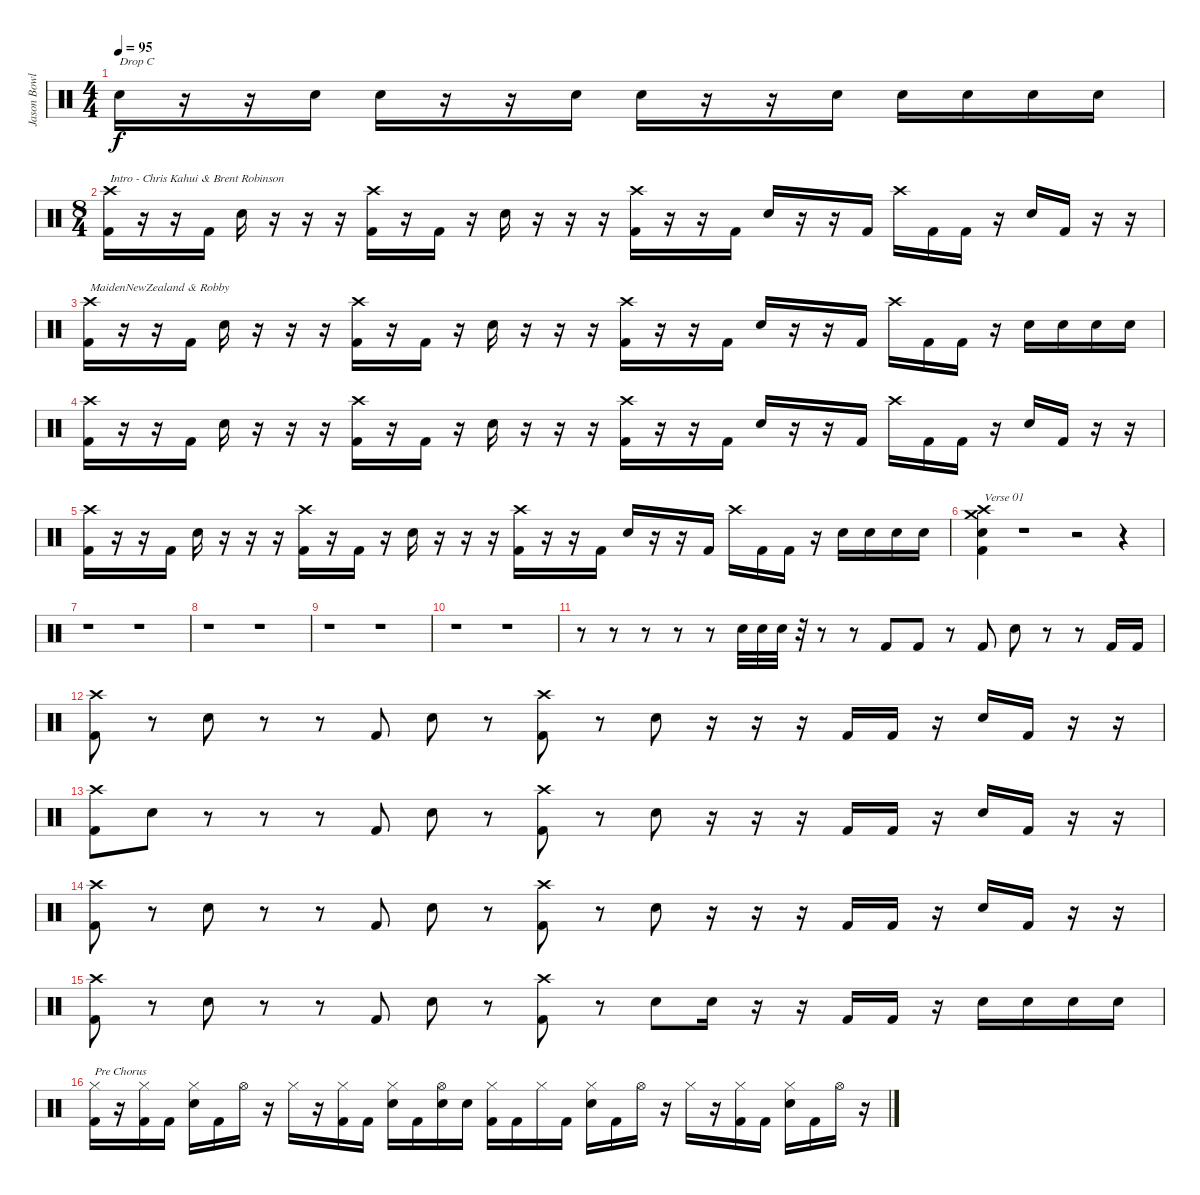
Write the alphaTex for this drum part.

\track ("Jason Bowld" "Jason Bowl") {instrument percussion}
\staff {score}
\articulation defaults
\ts (4 4)
\tempo 95
\clef neutral
\ks c "Snare (hit) 2".16{txt "Drop C" dy f}
r.16 r.16 "Snare (hit) 2".16 "Snare (hit) 2".16 r.16 r.16 "Snare (hit) 2".16 "Snare (hit) 2".16 r.16 r.16 "Snare (hit) 2".16 "Snare (hit) 2".16 "Snare (hit) 2".16 "Snare (hit) 2".16 "Snare (hit) 2".16 |
\ts (8 4)
("Kick (hit) 2" "Crash high (hit)").16{txt "Intro - Chris Kahui & Brent Robinson"} r.16 r.16 "Kick (hit) 2".16 "Snare (hit) 2".16 r.16 r.16 r.16 ("Kick (hit) 2" "Crash high (hit)").16 r.16 "Kick (hit) 2".16 r.16 "Snare (hit) 2".16 r.16 r.16 r.16 ("Kick (hit) 2" "Crash high (hit)").16 r.16 r.16 "Kick (hit) 2".16 "Snare (hit) 2".16 r.16 r.16 "Kick (hit) 2".16 "Crash high (hit)".16 "Kick (hit) 2".16 "Kick (hit) 2".16 r.16 "Snare (hit) 2".16 "Kick (hit) 2".16 r.16 r.16 |
("Kick (hit) 2" "Crash high (hit)").16{txt "MaidenNewZealand & Robby"} r.16 r.16 "Kick (hit) 2".16 "Snare (hit) 2".16 r.16 r.16 r.16 ("Kick (hit) 2" "Crash high (hit)").16 r.16 "Kick (hit) 2".16 r.16 "Snare (hit) 2".16 r.16 r.16 r.16 ("Kick (hit) 2" "Crash high (hit)").16 r.16 r.16 "Kick (hit) 2".16 "Snare (hit) 2".16 r.16 r.16 "Kick (hit) 2".16 "Crash high (hit)".16 "Kick (hit) 2".16 "Kick (hit) 2".16 r.16 "Snare (hit) 2".16 "Snare (hit) 2".16 "Snare (hit) 2".16 "Snare (hit) 2".16 |
("Kick (hit) 2" "Crash high (hit)").16 r.16 r.16 "Kick (hit) 2".16 "Snare (hit) 2".16 r.16 r.16 r.16 ("Kick (hit) 2" "Crash high (hit)").16 r.16 "Kick (hit) 2".16 r.16 "Snare (hit) 2".16 r.16 r.16 r.16 ("Kick (hit) 2" "Crash high (hit)").16 r.16 r.16 "Kick (hit) 2".16 "Snare (hit) 2".16 r.16 r.16 "Kick (hit) 2".16 "Crash high (hit)".16 "Kick (hit) 2".16 "Kick (hit) 2".16 r.16 "Snare (hit) 2".16 "Kick (hit) 2".16 r.16 r.16 |
("Kick (hit) 2" "Crash high (hit)").16 r.16 r.16 "Kick (hit) 2".16 "Snare (hit) 2".16 r.16 r.16 r.16 ("Kick (hit) 2" "Crash high (hit)").16 r.16 "Kick (hit) 2".16 r.16 "Snare (hit) 2".16 r.16 r.16 r.16 ("Kick (hit) 2" "Crash high (hit)").16 r.16 r.16 "Kick (hit) 2".16 "Snare (hit) 2".16 r.16 r.16 "Kick (hit) 2".16 "Crash high (hit)".16 "Kick (hit) 2".16 "Kick (hit) 2".16 r.16 "Snare (hit) 2".16 "Snare (hit) 2".16 "Snare (hit) 2".16 "Snare (hit) 2".16 |
("Kick (hit) 2" "Snare (hit) 2" "Crash high (hit)" "Crash medium (hit)").4{txt "Verse 01"} r.1 r.2 r.4 |
r.1 r.1 |
r.1 r.1 |
r.1 r.1 |
r.1 r.1 |
r.8 r.8 r.8 r.8 r.8 "Snare (hit) 2".32 "Snare (hit) 2".32 "Snare (hit) 2".32 r.32 r.8 r.8 "Kick (hit) 2".8 "Kick (hit) 2".8 r.8 "Kick (hit) 2".8 "Snare (hit) 2".8 r.8 r.8 "Kick (hit) 2".16 "Kick (hit) 2".16 |
("Kick (hit) 2" "Crash high (hit)"{nh}).8 r.8 "Snare (hit) 2".8 r.8 r.8 "Kick (hit) 2".8 "Snare (hit) 2".8 r.8 ("Kick (hit) 2" "Crash high (hit)"{nh}).8 r.8 "Snare (hit) 2".8 r.16 r.16 r.16 "Kick (hit) 2".16 "Kick (hit) 2".16 r.16 "Snare (hit) 2".16 "Kick (hit) 2".16 r.16 r.16 |
("Kick (hit) 2" "Crash high (hit)"{nh}).8 "Snare (hit) 2".8 r.8 r.8 r.8 "Kick (hit) 2".8 "Snare (hit) 2".8 r.8 ("Kick (hit) 2" "Crash high (hit)"{nh}).8 r.8 "Snare (hit) 2".8 r.16 r.16 r.16 "Kick (hit) 2".16 "Kick (hit) 2".16 r.16 "Snare (hit) 2".16 "Kick (hit) 2".16 r.16 r.16 |
("Kick (hit) 2" "Crash high (hit)"{nh}).8 r.8 "Snare (hit) 2".8 r.8 r.8 "Kick (hit) 2".8 "Snare (hit) 2".8 r.8 ("Kick (hit) 2" "Crash high (hit)"{nh}).8 r.8 "Snare (hit) 2".8 r.16 r.16 r.16 "Kick (hit) 2".16 "Kick (hit) 2".16 r.16 "Snare (hit) 2".16 "Kick (hit) 2".16 r.16 r.16 |
("Kick (hit) 2" "Crash high (hit)"{nh}).8 r.8 "Snare (hit) 2".8 r.8 r.8 "Kick (hit) 2".8 "Snare (hit) 2".8 r.8 ("Kick (hit) 2" "Crash high (hit)"{nh}).8 r.8 "Snare (hit) 2".8 "Snare (hit) 2".16 r.16 r.16 "Kick (hit) 2".16 "Kick (hit) 2".16 r.16 "Snare (hit) 2".16 "Snare (hit) 2".16 "Snare (hit) 2".16 "Snare (hit) 2".16 |
("Hi-Hat (closed)" "Kick (hit) 2").16{txt "Pre Chorus"} r.16 ("Hi-Hat (closed)" "Kick (hit) 2").16 "Kick (hit) 2".16 ("Hi-Hat (closed)" "Snare (hit) 2").16 "Kick (hit) 2".16 "Hi-Hat (open)".16 r.16 "Hi-Hat (closed)".16 r.16 ("Hi-Hat (closed)" "Kick (hit) 2").16 "Kick (hit) 2".16 ("Hi-Hat (closed)" "Snare (hit) 2").16 "Kick (hit) 2".16 ("Hi-Hat (open)" "Snare (hit) 2").16 "Snare (hit) 2".16 ("Hi-Hat (closed)" "Kick (hit) 2").16 "Kick (hit) 2".16 "Hi-Hat (closed)".16 "Kick (hit) 2".16 ("Hi-Hat (closed)" "Snare (hit) 2").16 "Kick (hit) 2".16 "Hi-Hat (open)".16 r.16 "Hi-Hat (closed)".16 r.16 ("Hi-Hat (closed)" "Kick (hit) 2").16 "Kick (hit) 2".16 ("Hi-Hat (closed)" "Snare (hit) 2").16 "Kick (hit) 2".16 "Hi-Hat (open)".16 r.16
